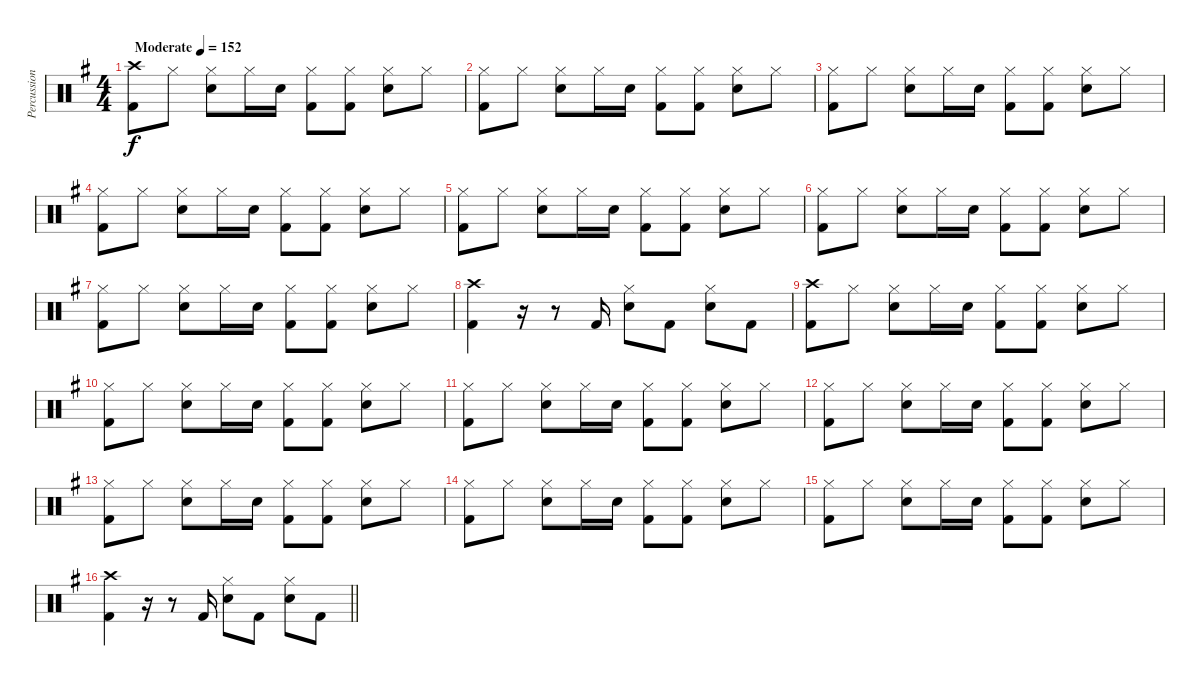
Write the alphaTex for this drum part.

\track ("Percussion" "Percussion") {instrument percussion}
\staff {score}
\articulation defaults
\ts (4 4)
\tempo (152 "Moderate")
\clef neutral
\ks eminor
("Crash high (hit)" "Kick (hit) 2").8{dy f} "Hi-Hat (closed)".8 ("Hi-Hat (closed)" "Snare (hit) 2").8 "Hi-Hat (closed)".16 "Snare (hit) 2".16 ("Hi-Hat (closed)" "Kick (hit) 2").8 ("Hi-Hat (closed)" "Kick (hit) 2").8 ("Hi-Hat (closed)" "Snare (hit) 2").8 "Hi-Hat (closed)".8 |
("Hi-Hat (closed)" "Kick (hit) 2").8 "Hi-Hat (closed)".8 ("Hi-Hat (closed)" "Snare (hit) 2").8 "Hi-Hat (closed)".16 "Snare (hit) 2".16 ("Hi-Hat (closed)" "Kick (hit) 2").8 ("Hi-Hat (closed)" "Kick (hit) 2").8 ("Hi-Hat (closed)" "Snare (hit) 2").8 "Hi-Hat (closed)".8 |
("Hi-Hat (closed)" "Kick (hit) 2").8 "Hi-Hat (closed)".8 ("Hi-Hat (closed)" "Snare (hit) 2").8 "Hi-Hat (closed)".16 "Snare (hit) 2".16 ("Hi-Hat (closed)" "Kick (hit) 2").8 ("Hi-Hat (closed)" "Kick (hit) 2").8 ("Hi-Hat (closed)" "Snare (hit) 2").8 "Hi-Hat (closed)".8 |
("Hi-Hat (closed)" "Kick (hit) 2").8 "Hi-Hat (closed)".8 ("Hi-Hat (closed)" "Snare (hit) 2").8 "Hi-Hat (closed)".16 "Snare (hit) 2".16 ("Hi-Hat (closed)" "Kick (hit) 2").8 ("Hi-Hat (closed)" "Kick (hit) 2").8 ("Hi-Hat (closed)" "Snare (hit) 2").8 "Hi-Hat (closed)".8 |
("Hi-Hat (closed)" "Kick (hit) 2").8 "Hi-Hat (closed)".8 ("Hi-Hat (closed)" "Snare (hit) 2").8 "Hi-Hat (closed)".16 "Snare (hit) 2".16 ("Hi-Hat (closed)" "Kick (hit) 2").8 ("Hi-Hat (closed)" "Kick (hit) 2").8 ("Hi-Hat (closed)" "Snare (hit) 2").8 "Hi-Hat (closed)".8 |
("Hi-Hat (closed)" "Kick (hit) 2").8 "Hi-Hat (closed)".8 ("Hi-Hat (closed)" "Snare (hit) 2").8 "Hi-Hat (closed)".16 "Snare (hit) 2".16 ("Hi-Hat (closed)" "Kick (hit) 2").8 ("Hi-Hat (closed)" "Kick (hit) 2").8 ("Hi-Hat (closed)" "Snare (hit) 2").8 "Hi-Hat (closed)".8 |
("Hi-Hat (closed)" "Kick (hit) 2").8 "Hi-Hat (closed)".8 ("Hi-Hat (closed)" "Snare (hit) 2").8 "Hi-Hat (closed)".16 "Snare (hit) 2".16 ("Hi-Hat (closed)" "Kick (hit) 2").8 ("Hi-Hat (closed)" "Kick (hit) 2").8 ("Hi-Hat (closed)" "Snare (hit) 2").8 "Hi-Hat (closed)".8 |
("Crash high (hit)" "Kick (hit) 2").4 r.16 r.8 "Kick (hit) 2".16 ("Hi-Hat (closed)" "Snare (hit) 2").8 "Kick (hit) 2".8 ("Hi-Hat (closed)" "Snare (hit) 2").8 "Kick (hit) 2".8 |
("Crash high (hit)" "Kick (hit) 2").8 "Hi-Hat (closed)".8 ("Hi-Hat (closed)" "Snare (hit) 2").8 "Hi-Hat (closed)".16 "Snare (hit) 2".16 ("Hi-Hat (closed)" "Kick (hit) 2").8 ("Hi-Hat (closed)" "Kick (hit) 2").8 ("Hi-Hat (closed)" "Snare (hit) 2").8 "Hi-Hat (closed)".8 |
("Hi-Hat (closed)" "Kick (hit) 2").8 "Hi-Hat (closed)".8 ("Hi-Hat (closed)" "Snare (hit) 2").8 "Hi-Hat (closed)".16 "Snare (hit) 2".16 ("Hi-Hat (closed)" "Kick (hit) 2").8 ("Hi-Hat (closed)" "Kick (hit) 2").8 ("Hi-Hat (closed)" "Snare (hit) 2").8 "Hi-Hat (closed)".8 |
("Hi-Hat (closed)" "Kick (hit) 2").8 "Hi-Hat (closed)".8 ("Hi-Hat (closed)" "Snare (hit) 2").8 "Hi-Hat (closed)".16 "Snare (hit) 2".16 ("Hi-Hat (closed)" "Kick (hit) 2").8 ("Hi-Hat (closed)" "Kick (hit) 2").8 ("Hi-Hat (closed)" "Snare (hit) 2").8 "Hi-Hat (closed)".8 |
("Hi-Hat (closed)" "Kick (hit) 2").8 "Hi-Hat (closed)".8 ("Hi-Hat (closed)" "Snare (hit) 2").8 "Hi-Hat (closed)".16 "Snare (hit) 2".16 ("Hi-Hat (closed)" "Kick (hit) 2").8 ("Hi-Hat (closed)" "Kick (hit) 2").8 ("Hi-Hat (closed)" "Snare (hit) 2").8 "Hi-Hat (closed)".8 |
("Hi-Hat (closed)" "Kick (hit) 2").8 "Hi-Hat (closed)".8 ("Hi-Hat (closed)" "Snare (hit) 2").8 "Hi-Hat (closed)".16 "Snare (hit) 2".16 ("Hi-Hat (closed)" "Kick (hit) 2").8 ("Hi-Hat (closed)" "Kick (hit) 2").8 ("Hi-Hat (closed)" "Snare (hit) 2").8 "Hi-Hat (closed)".8 |
("Hi-Hat (closed)" "Kick (hit) 2").8 "Hi-Hat (closed)".8 ("Hi-Hat (closed)" "Snare (hit) 2").8 "Hi-Hat (closed)".16 "Snare (hit) 2".16 ("Hi-Hat (closed)" "Kick (hit) 2").8 ("Hi-Hat (closed)" "Kick (hit) 2").8 ("Hi-Hat (closed)" "Snare (hit) 2").8 "Hi-Hat (closed)".8 |
("Hi-Hat (closed)" "Kick (hit) 2").8 "Hi-Hat (closed)".8 ("Hi-Hat (closed)" "Snare (hit) 2").8 "Hi-Hat (closed)".16 "Snare (hit) 2".16 ("Hi-Hat (closed)" "Kick (hit) 2").8 ("Hi-Hat (closed)" "Kick (hit) 2").8 ("Hi-Hat (closed)" "Snare (hit) 2").8 "Hi-Hat (closed)".8 |
\barLineRight lightlight
("Crash high (hit)" "Kick (hit) 2").4 r.16 r.8 "Kick (hit) 2".16 ("Hi-Hat (closed)" "Snare (hit) 2").8 "Kick (hit) 2".8 ("Hi-Hat (closed)" "Snare (hit) 2").8 "Kick (hit) 2".8
